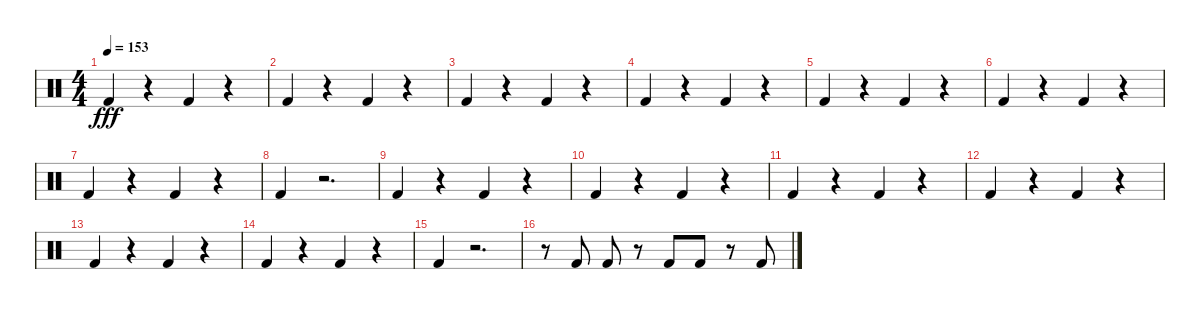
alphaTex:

\track "" {instrument percussion}
\staff {score}
\articulation defaults
\ts (4 4)
\tempo 153
\clef neutral
\ks c "Kick (hit) 2".4{dy fff}
r.4 "Kick (hit) 2".4 r.4 |
"Kick (hit) 2".4 r.4 "Kick (hit) 2".4 r.4 |
"Kick (hit) 2".4 r.4 "Kick (hit) 2".4 r.4 |
"Kick (hit) 2".4 r.4 "Kick (hit) 2".4 r.4 |
"Kick (hit) 2".4 r.4 "Kick (hit) 2".4 r.4 |
"Kick (hit) 2".4 r.4 "Kick (hit) 2".4 r.4 |
"Kick (hit) 2".4 r.4 "Kick (hit) 2".4 r.4 |
"Kick (hit) 2".4 r.2{d} |
"Kick (hit) 2".4 r.4 "Kick (hit) 2".4 r.4 |
"Kick (hit) 2".4 r.4 "Kick (hit) 2".4 r.4 |
"Kick (hit) 2".4 r.4 "Kick (hit) 2".4 r.4 |
"Kick (hit) 2".4 r.4 "Kick (hit) 2".4 r.4 |
"Kick (hit) 2".4 r.4 "Kick (hit) 2".4 r.4 |
"Kick (hit) 2".4 r.4 "Kick (hit) 2".4 r.4 |
"Kick (hit) 2".4 r.2{d} |
r.8 "Kick (hit) 2".8 "Kick (hit) 2".8 r.8 "Kick (hit) 2".8 "Kick (hit) 2".8 r.8 "Kick (hit) 2".8
